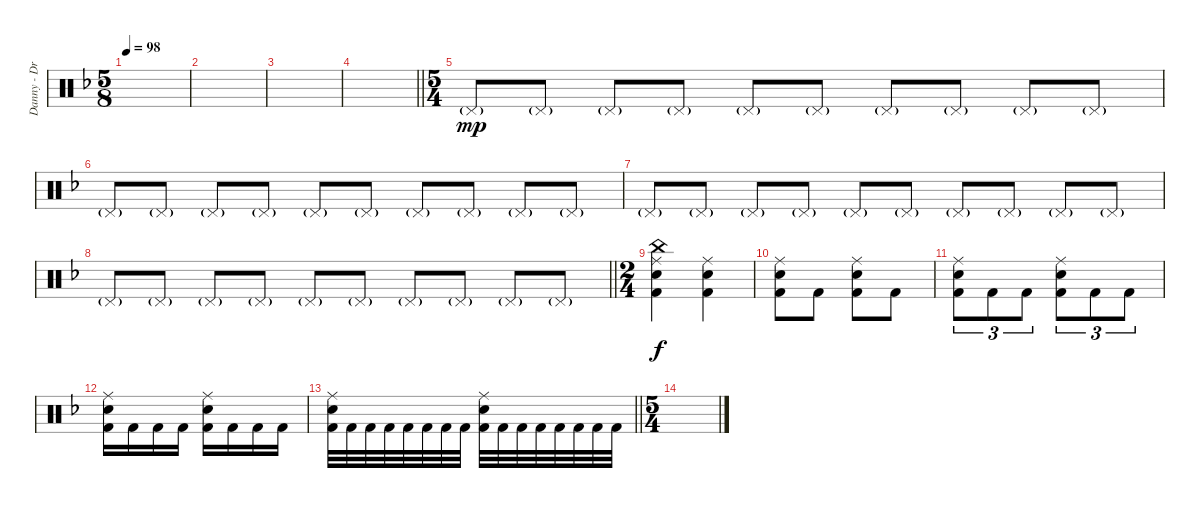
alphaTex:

\track ("Danny - Drums" "Danny - Dr") {instrument percussion}
\staff {score}
\articulation defaults
\ts (5 8)
\tempo 98
\clef neutral
\ks dminor
|
|
|
\barLineRight lightlight
|
\ts (5 4)
"Pedal Hi-Hat (hit)"{g}.8{dy mp} "Pedal Hi-Hat (hit)"{g}.8 "Pedal Hi-Hat (hit)"{g}.8 "Pedal Hi-Hat (hit)"{g}.8 "Pedal Hi-Hat (hit)"{g}.8 "Pedal Hi-Hat (hit)"{g}.8 "Pedal Hi-Hat (hit)"{g}.8 "Pedal Hi-Hat (hit)"{g}.8 "Pedal Hi-Hat (hit)"{g}.8 "Pedal Hi-Hat (hit)"{g}.8 |
"Pedal Hi-Hat (hit)"{g}.8 "Pedal Hi-Hat (hit)"{g}.8 "Pedal Hi-Hat (hit)"{g}.8 "Pedal Hi-Hat (hit)"{g}.8 "Pedal Hi-Hat (hit)"{g}.8 "Pedal Hi-Hat (hit)"{g}.8 "Pedal Hi-Hat (hit)"{g}.8 "Pedal Hi-Hat (hit)"{g}.8 "Pedal Hi-Hat (hit)"{g}.8 "Pedal Hi-Hat (hit)"{g}.8 |
"Pedal Hi-Hat (hit)"{g}.8 "Pedal Hi-Hat (hit)"{g}.8 "Pedal Hi-Hat (hit)"{g}.8 "Pedal Hi-Hat (hit)"{g}.8 "Pedal Hi-Hat (hit)"{g}.8 "Pedal Hi-Hat (hit)"{g}.8 "Pedal Hi-Hat (hit)"{g}.8 "Pedal Hi-Hat (hit)"{g}.8 "Pedal Hi-Hat (hit)"{g}.8 "Pedal Hi-Hat (hit)"{g}.8 |
\barLineRight lightlight "Pedal Hi-Hat (hit)"{g}.8 "Pedal Hi-Hat (hit)"{g}.8 "Pedal Hi-Hat (hit)"{g}.8 "Pedal Hi-Hat (hit)"{g}.8 "Pedal Hi-Hat (hit)"{g}.8 "Pedal Hi-Hat (hit)"{g}.8 "Pedal Hi-Hat (hit)"{g}.8 "Pedal Hi-Hat (hit)"{g}.8 "Pedal Hi-Hat (hit)"{g}.8 "Pedal Hi-Hat (hit)"{g}.8
|
\ts (2 4)
("China (hit)" "Ride (middle)" "Electric Snare (hit)" "Kick (hit) 2").4{dy f volume 14} ("Ride (middle)" "Electric Snare (hit)" "Kick (hit) 2").4 |
("Ride (middle)" "Electric Snare (hit)" "Kick (hit) 2").8 "Kick (hit) 2".8 ("Ride (middle)" "Electric Snare (hit)" "Kick (hit) 2").8 "Kick (hit) 2".8 |
("Ride (middle)" "Electric Snare (hit)" "Kick (hit) 2").8{tu (3 2)} "Kick (hit) 2".8{tu (3 2)} "Kick (hit) 2".8{tu (3 2)} ("Ride (middle)" "Electric Snare (hit)" "Kick (hit) 2").8{tu (3 2)} "Kick (hit) 2".8{tu (3 2)} "Kick (hit) 2".8{tu (3 2)} |
("Ride (middle)" "Electric Snare (hit)" "Kick (hit) 2").16 "Kick (hit) 2".16 "Kick (hit) 2".16 "Kick (hit) 2".16 ("Ride (middle)" "Electric Snare (hit)" "Kick (hit) 2").16 "Kick (hit) 2".16 "Kick (hit) 2".16 "Kick (hit) 2".16 |
\barLineRight lightlight
("Ride (middle)" "Electric Snare (hit)" "Kick (hit) 2").32 "Kick (hit) 2".32 "Kick (hit) 2".32 "Kick (hit) 2".32 "Kick (hit) 2".32 "Kick (hit) 2".32 "Kick (hit) 2".32 "Kick (hit) 2".32 ("Ride (middle)" "Electric Snare (hit)" "Kick (hit) 2").32 "Kick (hit) 2".32 "Kick (hit) 2".32 "Kick (hit) 2".32 "Kick (hit) 2".32 "Kick (hit) 2".32 "Kick (hit) 2".32 "Kick (hit) 2".32 |
\ts (5 4)
